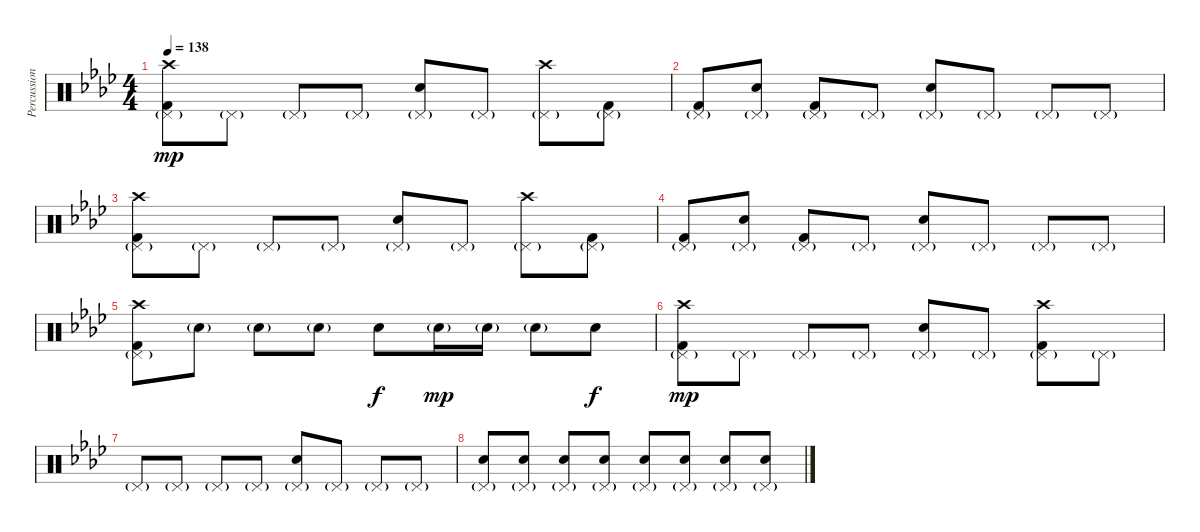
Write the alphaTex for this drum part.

\track ("Percussion" "Percussion") {instrument percussion}
\staff {score}
\articulation defaults
\ts (4 4)
\tempo 138
\clef neutral
\ks ab
("Crash high (hit)" "Pedal Hi-Hat (hit)"{g} "Kick (hit) 2").8{dy mp} "Pedal Hi-Hat (hit)"{g}.8 "Pedal Hi-Hat (hit)"{g}.8 "Pedal Hi-Hat (hit)"{g}.8 ("Snare (hit) 2" "Pedal Hi-Hat (hit)"{g}).8 "Pedal Hi-Hat (hit)"{g}.8 ("Crash high (hit)" "Pedal Hi-Hat (hit)"{g}).8 ("Pedal Hi-Hat (hit)"{g} "Kick (hit) 2").8 |
("Pedal Hi-Hat (hit)"{g} "Kick (hit) 2").8 ("Snare (hit) 2" "Pedal Hi-Hat (hit)"{g}).8 ("Pedal Hi-Hat (hit)"{g} "Kick (hit) 2").8 "Pedal Hi-Hat (hit)"{g}.8 ("Snare (hit) 2" "Pedal Hi-Hat (hit)"{g}).8 "Pedal Hi-Hat (hit)"{g}.8 "Pedal Hi-Hat (hit)"{g}.8 "Pedal Hi-Hat (hit)"{g}.8 |
("Crash high (hit)" "Pedal Hi-Hat (hit)"{g} "Kick (hit) 2").8 "Pedal Hi-Hat (hit)"{g}.8 "Pedal Hi-Hat (hit)"{g}.8 "Pedal Hi-Hat (hit)"{g}.8 ("Snare (hit) 2" "Pedal Hi-Hat (hit)"{g}).8 "Pedal Hi-Hat (hit)"{g}.8 ("Crash high (hit)" "Pedal Hi-Hat (hit)"{g}).8 ("Pedal Hi-Hat (hit)"{g} "Kick (hit) 2").8 |
("Pedal Hi-Hat (hit)"{g} "Kick (hit) 2").8 ("Snare (hit) 2" "Pedal Hi-Hat (hit)"{g}).8 ("Pedal Hi-Hat (hit)"{g} "Kick (hit) 2").8 "Pedal Hi-Hat (hit)"{g}.8 ("Snare (hit) 2" "Pedal Hi-Hat (hit)"{g}).8 "Pedal Hi-Hat (hit)"{g}.8 "Pedal Hi-Hat (hit)"{g}.8 "Pedal Hi-Hat (hit)"{g}.8 |
("Crash high (hit)" "Pedal Hi-Hat (hit)"{g} "Kick (hit) 2").8 "Electric Snare (hit)"{g}.8 "Electric Snare (hit)"{g}.8 "Electric Snare (hit)"{g}.8 "Snare (hit) 2".8{dy f} "Electric Snare (hit)"{g}.16{dy mp} "Electric Snare (hit)"{g}.16 "Electric Snare (hit)"{g}.8 "Snare (hit) 2".8{dy f} |
("Crash high (hit)" "Pedal Hi-Hat (hit)"{g} "Kick (hit) 2").8{dy mp} "Pedal Hi-Hat (hit)"{g}.8 "Pedal Hi-Hat (hit)"{g}.8 "Pedal Hi-Hat (hit)"{g}.8 ("Snare (hit) 2" "Pedal Hi-Hat (hit)"{g}).8 "Pedal Hi-Hat (hit)"{g}.8 ("Crash high (hit)" "Pedal Hi-Hat (hit)"{g} "Kick (hit) 2").8 "Pedal Hi-Hat (hit)"{g}.8 |
"Pedal Hi-Hat (hit)"{g}.8 "Pedal Hi-Hat (hit)"{g}.8 "Pedal Hi-Hat (hit)"{g}.8 "Pedal Hi-Hat (hit)"{g}.8 ("Snare (hit) 2" "Pedal Hi-Hat (hit)"{g}).8 "Pedal Hi-Hat (hit)"{g}.8 "Pedal Hi-Hat (hit)"{g}.8 "Pedal Hi-Hat (hit)"{g}.8 |
("Snare (hit) 2" "Pedal Hi-Hat (hit)"{g}).8 ("Snare (hit) 2" "Pedal Hi-Hat (hit)"{g}).8 ("Snare (hit) 2" "Pedal Hi-Hat (hit)"{g}).8 ("Snare (hit) 2" "Pedal Hi-Hat (hit)"{g}).8 ("Snare (hit) 2" "Pedal Hi-Hat (hit)"{g}).8 ("Snare (hit) 2" "Pedal Hi-Hat (hit)"{g}).8 ("Snare (hit) 2" "Pedal Hi-Hat (hit)"{g}).8 ("Snare (hit) 2" "Pedal Hi-Hat (hit)"{g}).8
